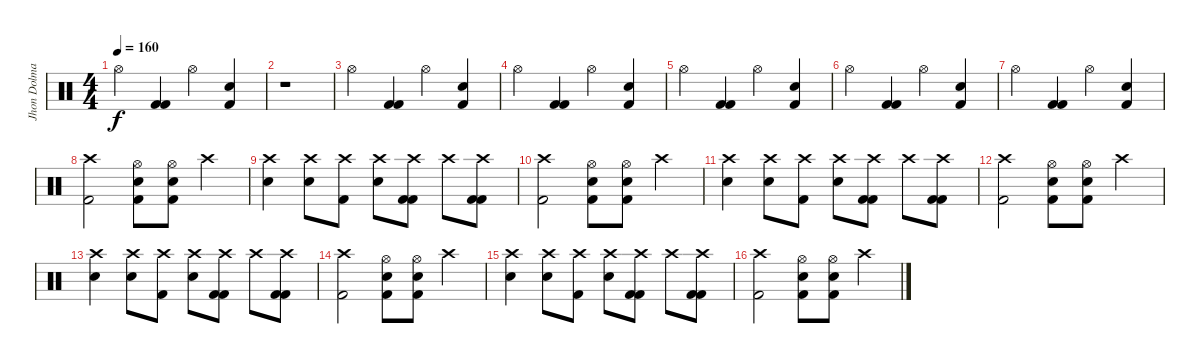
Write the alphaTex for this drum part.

\track ("Jhon Dolmayan(Drum)" "Jhon Dolma") {instrument percussion}
\staff {score}
\articulation defaults
\ts (4 4)
\tempo 160
\clef neutral
\ks c "Hi-Hat (open)".4{dy f}
("Kick (hit) 2" "Kick (hit) 2").4 "Hi-Hat (open)".4 ("Kick (hit) 2" "Electric Snare (hit)").4 |
r.1 |
"Hi-Hat (open)".4 ("Kick (hit) 2" "Kick (hit) 2").4 "Hi-Hat (open)".4 ("Kick (hit) 2" "Electric Snare (hit)").4 |
"Hi-Hat (open)".4 ("Kick (hit) 2" "Kick (hit) 2").4 "Hi-Hat (open)".4 ("Kick (hit) 2" "Electric Snare (hit)").4 |
"Hi-Hat (open)".4 ("Kick (hit) 2" "Kick (hit) 2").4 "Hi-Hat (open)".4 ("Kick (hit) 2" "Electric Snare (hit)").4 |
"Hi-Hat (open)".4 ("Kick (hit) 2" "Kick (hit) 2").4 "Hi-Hat (open)".4 ("Kick (hit) 2" "Electric Snare (hit)").4 |
"Hi-Hat (open)".4 ("Kick (hit) 2" "Kick (hit) 2").4 "Hi-Hat (open)".4 ("Kick (hit) 2" "Electric Snare (hit)").4 |
("Crash high (hit)" "Kick (hit) 2").2 ("Electric Snare (hit)" "Kick (hit) 2" "Hi-Hat (open)").8 ("Electric Snare (hit)" "Kick (hit) 2" "Hi-Hat (open)").8 "Crash high (hit)".4 |
("Electric Snare (hit)" "Crash high (hit)").4 ("Electric Snare (hit)" "Crash high (hit)").8 ("Crash high (hit)" "Kick (hit) 2").8 ("Electric Snare (hit)" "Crash high (hit)").8 ("Crash high (hit)" "Kick (hit) 2" "Kick (hit) 2").8 "Crash high (hit)".8 ("Crash high (hit)" "Kick (hit) 2" "Kick (hit) 2").8 |
("Crash high (hit)" "Kick (hit) 2").2 ("Electric Snare (hit)" "Kick (hit) 2" "Hi-Hat (open)").8 ("Electric Snare (hit)" "Kick (hit) 2" "Hi-Hat (open)").8 "Crash high (hit)".4 |
("Electric Snare (hit)" "Crash high (hit)").4 ("Electric Snare (hit)" "Crash high (hit)").8 ("Crash high (hit)" "Kick (hit) 2").8 ("Electric Snare (hit)" "Crash high (hit)").8 ("Crash high (hit)" "Kick (hit) 2" "Kick (hit) 2").8 "Crash high (hit)".8 ("Crash high (hit)" "Kick (hit) 2" "Kick (hit) 2").8 |
("Crash high (hit)" "Kick (hit) 2").2 ("Electric Snare (hit)" "Kick (hit) 2" "Hi-Hat (open)").8 ("Electric Snare (hit)" "Kick (hit) 2" "Hi-Hat (open)").8 "Crash high (hit)".4 |
("Electric Snare (hit)" "Crash high (hit)").4 ("Electric Snare (hit)" "Crash high (hit)").8 ("Crash high (hit)" "Kick (hit) 2").8 ("Electric Snare (hit)" "Crash high (hit)").8 ("Crash high (hit)" "Kick (hit) 2" "Kick (hit) 2").8 "Crash high (hit)".8 ("Crash high (hit)" "Kick (hit) 2" "Kick (hit) 2").8 |
("Crash high (hit)" "Kick (hit) 2").2 ("Electric Snare (hit)" "Kick (hit) 2" "Hi-Hat (open)").8 ("Electric Snare (hit)" "Kick (hit) 2" "Hi-Hat (open)").8 "Crash high (hit)".4 |
("Electric Snare (hit)" "Crash high (hit)").4 ("Electric Snare (hit)" "Crash high (hit)").8 ("Crash high (hit)" "Kick (hit) 2").8 ("Electric Snare (hit)" "Crash high (hit)").8 ("Crash high (hit)" "Kick (hit) 2" "Kick (hit) 2").8 "Crash high (hit)".8 ("Crash high (hit)" "Kick (hit) 2" "Kick (hit) 2").8 |
("Crash high (hit)" "Kick (hit) 2").2 ("Electric Snare (hit)" "Kick (hit) 2" "Hi-Hat (open)").8 ("Electric Snare (hit)" "Kick (hit) 2" "Hi-Hat (open)").8 "Crash high (hit)".4
